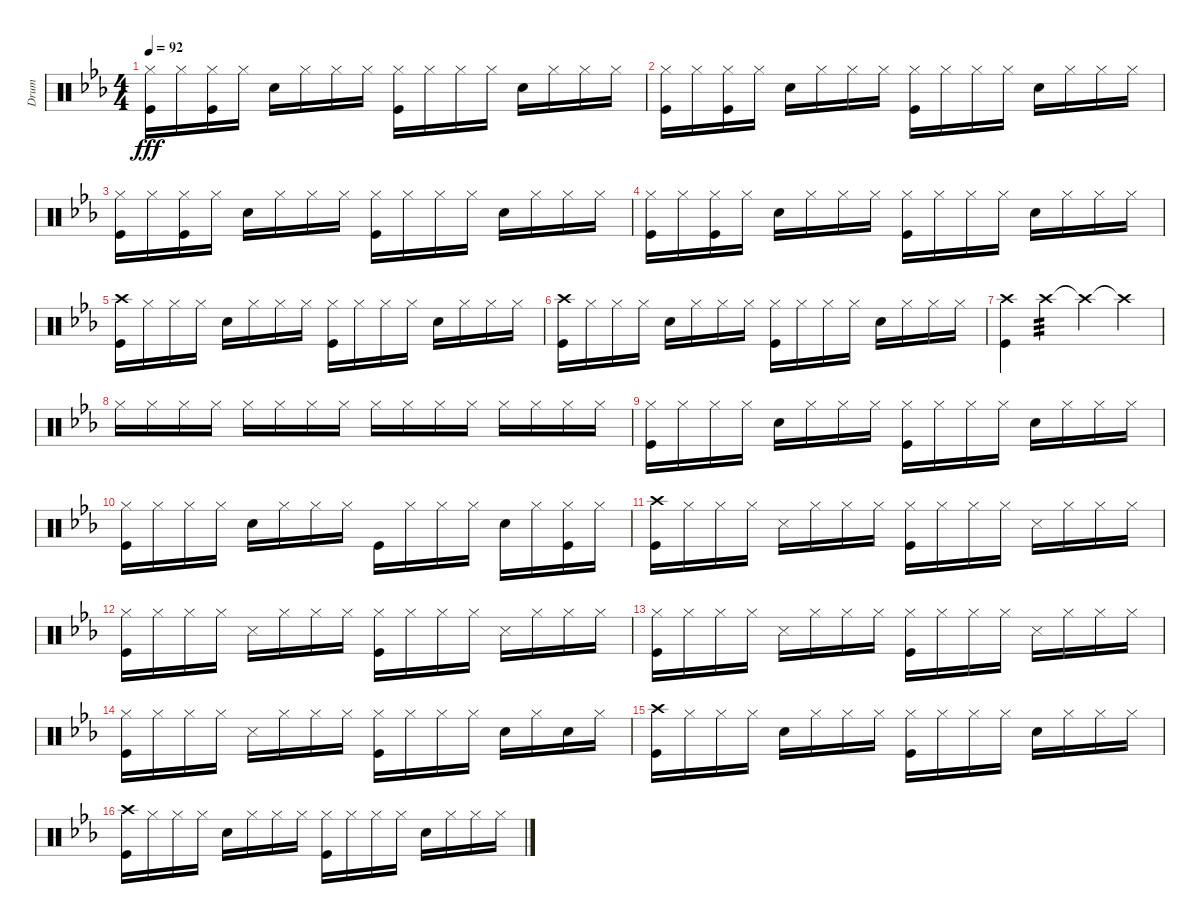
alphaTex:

\track ("Drum" "Drum") {instrument percussion}
\staff {score}
\articulation defaults
\ts (4 4)
\tempo 92
\clef neutral
\ks eb
("Hi-Hat (closed)" "Kick (hit)").16{dy fff} "Hi-Hat (closed)".16 ("Hi-Hat (closed)" "Kick (hit)").16 "Hi-Hat (closed)".16 "Snare (hit) 2".16 "Hi-Hat (closed)".16 "Hi-Hat (closed)".16 "Hi-Hat (closed)".16 ("Hi-Hat (closed)" "Kick (hit)").16 "Hi-Hat (closed)".16 "Hi-Hat (closed)".16 "Hi-Hat (closed)".16 "Snare (hit) 2".16 "Hi-Hat (closed)".16 "Hi-Hat (closed)".16 "Hi-Hat (closed)".16 |
("Hi-Hat (closed)" "Kick (hit)").16 "Hi-Hat (closed)".16 ("Hi-Hat (closed)" "Kick (hit)").16 "Hi-Hat (closed)".16 "Snare (hit) 2".16 "Hi-Hat (closed)".16 "Hi-Hat (closed)".16 "Hi-Hat (closed)".16 ("Hi-Hat (closed)" "Kick (hit)").16 "Hi-Hat (closed)".16 "Hi-Hat (closed)".16 "Hi-Hat (closed)".16 "Snare (hit) 2".16 "Hi-Hat (closed)".16 "Hi-Hat (closed)".16 "Hi-Hat (closed)".16 |
("Hi-Hat (closed)" "Kick (hit)").16 "Hi-Hat (closed)".16 ("Hi-Hat (closed)" "Kick (hit)").16 "Hi-Hat (closed)".16 "Snare (hit) 2".16 "Hi-Hat (closed)".16 "Hi-Hat (closed)".16 "Hi-Hat (closed)".16 ("Hi-Hat (closed)" "Kick (hit)").16 "Hi-Hat (closed)".16 "Hi-Hat (closed)".16 "Hi-Hat (closed)".16 "Snare (hit) 2".16 "Hi-Hat (closed)".16 "Hi-Hat (closed)".16 "Hi-Hat (closed)".16 |
("Hi-Hat (closed)" "Kick (hit)").16 "Hi-Hat (closed)".16 ("Hi-Hat (closed)" "Kick (hit)").16 "Hi-Hat (closed)".16 "Snare (hit) 2".16 "Hi-Hat (closed)".16 "Hi-Hat (closed)".16 "Hi-Hat (closed)".16 ("Hi-Hat (closed)" "Kick (hit)").16 "Hi-Hat (closed)".16 "Hi-Hat (closed)".16 "Hi-Hat (closed)".16 "Snare (hit) 2".16 "Hi-Hat (closed)".16 "Hi-Hat (closed)".16 "Hi-Hat (closed)".16 |
("Crash high (hit)" "Kick (hit)").16 "Hi-Hat (closed)".16 "Hi-Hat (closed)".16 "Hi-Hat (closed)".16 "Snare (hit) 2".16 "Hi-Hat (closed)".16 "Hi-Hat (closed)".16 "Hi-Hat (closed)".16 ("Hi-Hat (closed)" "Kick (hit)").16 "Hi-Hat (closed)".16 "Hi-Hat (closed)".16 "Hi-Hat (closed)".16 "Snare (hit) 2".16 "Hi-Hat (closed)".16 "Hi-Hat (closed)".16 "Hi-Hat (closed)".16 |
("Crash high (hit)" "Kick (hit)").16 "Hi-Hat (closed)".16 "Hi-Hat (closed)".16 "Hi-Hat (closed)".16 "Snare (hit) 2".16 "Hi-Hat (closed)".16 "Hi-Hat (closed)".16 "Hi-Hat (closed)".16 ("Hi-Hat (closed)" "Kick (hit)").16 "Hi-Hat (closed)".16 "Hi-Hat (closed)".16 "Hi-Hat (closed)".16 "Snare (hit) 2".16 "Hi-Hat (closed)".16 "Hi-Hat (closed)".16 "Hi-Hat (closed)".16 |
("Crash high (hit)" "Kick (hit)").4 "Crash high (hit)".4{tp 3} "Crash high (hit)"{t}.4 "Crash high (hit)"{t}.4 |
"Hi-Hat (closed)".16 "Hi-Hat (closed)".16 "Hi-Hat (closed)".16 "Hi-Hat (closed)".16 "Hi-Hat (closed)".16 "Hi-Hat (closed)".16 "Hi-Hat (closed)".16 "Hi-Hat (closed)".16 "Hi-Hat (closed)".16 "Hi-Hat (closed)".16 "Hi-Hat (closed)".16 "Hi-Hat (closed)".16 "Hi-Hat (closed)".16 "Hi-Hat (closed)".16 "Hi-Hat (closed)".16 "Hi-Hat (closed)".16 |
("Hi-Hat (closed)" "Kick (hit)").16 "Hi-Hat (closed)".16 "Hi-Hat (closed)".16 "Hi-Hat (closed)".16 "Snare (hit) 2".16 "Hi-Hat (closed)".16 "Hi-Hat (closed)".16 "Hi-Hat (closed)".16 ("Hi-Hat (closed)" "Kick (hit)").16 "Hi-Hat (closed)".16 "Hi-Hat (closed)".16 "Hi-Hat (closed)".16 "Snare (hit) 2".16 "Hi-Hat (closed)".16 "Hi-Hat (closed)".16 "Hi-Hat (closed)".16 |
("Hi-Hat (closed)" "Kick (hit)").16 "Hi-Hat (closed)".16 "Hi-Hat (closed)".16 "Hi-Hat (closed)".16 "Snare (hit) 2".16 "Hi-Hat (closed)".16 "Hi-Hat (closed)".16 "Hi-Hat (closed)".16 "Kick (hit)".16 "Hi-Hat (closed)".16 "Hi-Hat (closed)".16 "Hi-Hat (closed)".16 "Snare (hit) 2".16 "Hi-Hat (closed)".16 ("Hi-Hat (closed)" "Kick (hit)").16 "Hi-Hat (closed)".16 |
("Crash high (hit)" "Kick (hit)").16 "Hi-Hat (closed)".16 "Hi-Hat (closed)".16 "Hi-Hat (closed)".16 "Snare (side stick) 3".16 "Hi-Hat (closed)".16 "Hi-Hat (closed)".16 "Hi-Hat (closed)".16 ("Hi-Hat (closed)" "Kick (hit)").16 "Hi-Hat (closed)".16 "Hi-Hat (closed)".16 "Hi-Hat (closed)".16 "Snare (side stick) 3".16 "Hi-Hat (closed)".16 "Hi-Hat (closed)".16 "Hi-Hat (closed)".16 |
("Hi-Hat (closed)" "Kick (hit)").16 "Hi-Hat (closed)".16 "Hi-Hat (closed)".16 "Hi-Hat (closed)".16 "Snare (side stick) 3".16 "Hi-Hat (closed)".16 "Hi-Hat (closed)".16 "Hi-Hat (closed)".16 ("Hi-Hat (closed)" "Kick (hit)").16 "Hi-Hat (closed)".16 "Hi-Hat (closed)".16 "Hi-Hat (closed)".16 "Snare (side stick) 3".16 "Hi-Hat (closed)".16 "Hi-Hat (closed)".16 "Hi-Hat (closed)".16 |
("Hi-Hat (closed)" "Kick (hit)").16 "Hi-Hat (closed)".16 "Hi-Hat (closed)".16 "Hi-Hat (closed)".16 "Snare (side stick) 3".16 "Hi-Hat (closed)".16 "Hi-Hat (closed)".16 "Hi-Hat (closed)".16 ("Hi-Hat (closed)" "Kick (hit)").16 "Hi-Hat (closed)".16 "Hi-Hat (closed)".16 "Hi-Hat (closed)".16 "Snare (side stick) 3".16 "Hi-Hat (closed)".16 "Hi-Hat (closed)".16 "Hi-Hat (closed)".16 |
("Hi-Hat (closed)" "Kick (hit)").16 "Hi-Hat (closed)".16 "Hi-Hat (closed)".16 "Hi-Hat (closed)".16 "Snare (side stick) 3".16 "Hi-Hat (closed)".16 "Hi-Hat (closed)".16 "Hi-Hat (closed)".16 ("Hi-Hat (closed)" "Kick (hit)").16 "Hi-Hat (closed)".16 "Hi-Hat (closed)".16 "Hi-Hat (closed)".16 "Snare (hit) 2".16 "Hi-Hat (closed)".16 "Snare (hit) 2".16 "Hi-Hat (closed)".16 |
("Crash high (hit)" "Kick (hit)").16 "Hi-Hat (closed)".16 "Hi-Hat (closed)".16 "Hi-Hat (closed)".16 "Snare (hit) 2".16 "Hi-Hat (closed)".16 "Hi-Hat (closed)".16 "Hi-Hat (closed)".16 ("Hi-Hat (closed)" "Kick (hit)").16 "Hi-Hat (closed)".16 "Hi-Hat (closed)".16 "Hi-Hat (closed)".16 "Snare (hit) 2".16 "Hi-Hat (closed)".16 "Hi-Hat (closed)".16 "Hi-Hat (closed)".16 |
("Crash high (hit)" "Kick (hit)").16 "Hi-Hat (closed)".16 "Hi-Hat (closed)".16 "Hi-Hat (closed)".16 "Snare (hit) 2".16 "Hi-Hat (closed)".16 "Hi-Hat (closed)".16 "Hi-Hat (closed)".16 ("Hi-Hat (closed)" "Kick (hit)").16 "Hi-Hat (closed)".16 "Hi-Hat (closed)".16 "Hi-Hat (closed)".16 "Snare (hit) 2".16 "Hi-Hat (closed)".16 "Hi-Hat (closed)".16 "Hi-Hat (closed)".16
